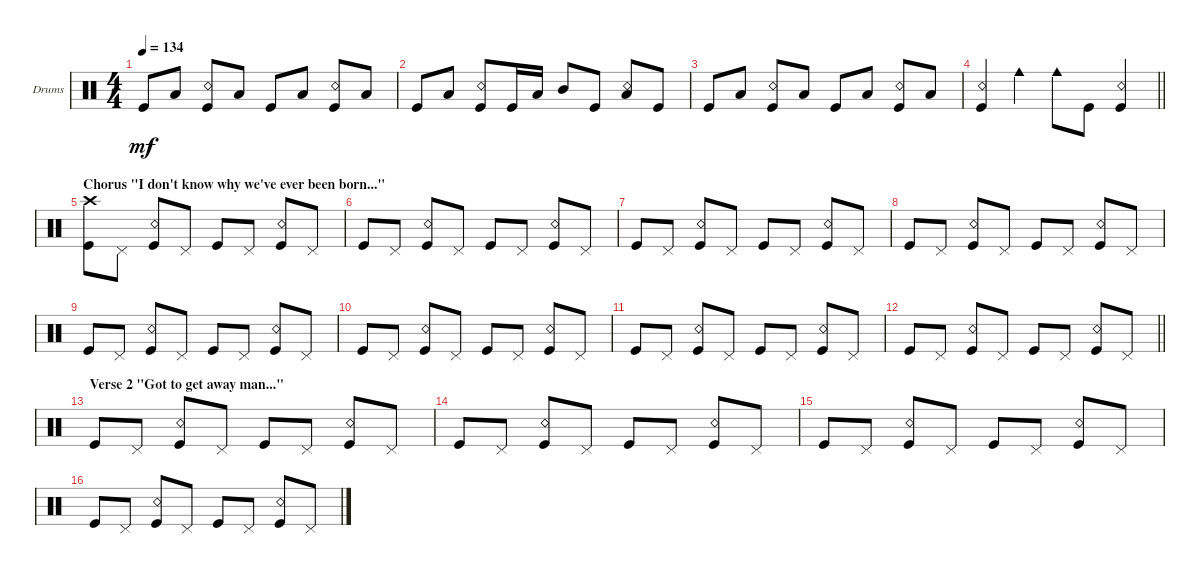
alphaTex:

\bracketExtendMode groupsimilarinstruments
\firstSystemTrackNameOrientation horizontal
\otherSystemsTrackNameOrientation horizontal
\track ("Nicky Bomba" "Drums") {instrument percussion}
\staff {score}
\articulation defaults
\ts (4 4)
\tempo 134
\clef neutral
\scale
0.333333
\ks c "Kick (hit)".8{dy mf} "Low Tom (hit)".8
("Kick (hit)" "Snare (rim shot)").8 "Low Tom (hit)".8 "Kick (hit)".8 "Low Tom (hit)".8 ("Kick (hit)" "Snare (rim shot)").8 "Low Tom (hit)".8 |
\scale
0.333333 "Kick (hit)".8 "Low Tom (hit)".8 ("Kick (hit)" "Snare (rim shot)").8 "Kick (hit)".16 "Low Tom (hit)".16 "Mid Tom (hit)".8 "Kick (hit)".8 ("Low Tom (hit)" "Snare (rim shot)").8 "Kick (hit)".8 |
\scale
0.333333 "Kick (hit)".8 "Low Tom (hit)".8 ("Kick (hit)" "Snare (rim shot)").8 "Low Tom (hit)".8 "Kick (hit)".8 "Low Tom (hit)".8 ("Kick (hit)" "Snare (rim shot)").8 "Low Tom (hit)".8 |
\scale
0.333333
\barLineRight lightlight
("Snare (rim shot)" "Kick (hit)").4 "Cowbell medium (hit)".4 "Cowbell medium (hit)".8 "Kick (hit)".8 ("Snare (rim shot)" "Kick (hit)").4 |
\section ("" "Chorus \"I don't know why we've ever been born...\"")
\scale
0.333333 ("Kick (hit)" "Crash high (hit)").8 "Pedal Hi-Hat (hit)".8 ("Kick (hit)" "Snare (rim shot)").8 "Pedal Hi-Hat (hit)".8 "Kick (hit)".8 "Pedal Hi-Hat (hit)".8 ("Kick (hit)" "Snare (rim shot)").8 "Pedal Hi-Hat (hit)".8 |
\scale
0.333333 "Kick (hit)".8 "Pedal Hi-Hat (hit)".8 ("Kick (hit)" "Snare (rim shot)").8 "Pedal Hi-Hat (hit)".8 "Kick (hit)".8 "Pedal Hi-Hat (hit)".8 ("Kick (hit)" "Snare (rim shot)").8 "Pedal Hi-Hat (hit)".8 |
\scale
0.333333 "Kick (hit)".8 "Pedal Hi-Hat (hit)".8 ("Kick (hit)" "Snare (rim shot)").8 "Pedal Hi-Hat (hit)".8 "Kick (hit)".8 "Pedal Hi-Hat (hit)".8 ("Kick (hit)" "Snare (rim shot)").8 "Pedal Hi-Hat (hit)".8 |
\scale
0.333333 "Kick (hit)".8 "Pedal Hi-Hat (hit)".8 ("Kick (hit)" "Snare (rim shot)").8 "Pedal Hi-Hat (hit)".8 "Kick (hit)".8 "Pedal Hi-Hat (hit)".8 ("Kick (hit)" "Snare (rim shot)").8 "Pedal Hi-Hat (hit)".8 |
\scale
0.333333 "Kick (hit)".8 "Pedal Hi-Hat (hit)".8 ("Kick (hit)" "Snare (rim shot)").8 "Pedal Hi-Hat (hit)".8 "Kick (hit)".8 "Pedal Hi-Hat (hit)".8 ("Kick (hit)" "Snare (rim shot)").8 "Pedal Hi-Hat (hit)".8 |
\scale
0.333333 "Kick (hit)".8 "Pedal Hi-Hat (hit)".8 ("Kick (hit)" "Snare (rim shot)").8 "Pedal Hi-Hat (hit)".8 "Kick (hit)".8 "Pedal Hi-Hat (hit)".8 ("Kick (hit)" "Snare (rim shot)").8 "Pedal Hi-Hat (hit)".8 |
\scale
0.333333 "Kick (hit)".8 "Pedal Hi-Hat (hit)".8 ("Kick (hit)" "Snare (rim shot)").8 "Pedal Hi-Hat (hit)".8 "Kick (hit)".8 "Pedal Hi-Hat (hit)".8 ("Kick (hit)" "Snare (rim shot)").8 "Pedal Hi-Hat (hit)".8 |
\scale
0.333333
\barLineRight lightlight "Kick (hit)".8 "Pedal Hi-Hat (hit)".8
("Kick (hit)" "Snare (rim shot)").8 "Pedal Hi-Hat (hit)".8 "Kick (hit)".8 "Pedal Hi-Hat (hit)".8 ("Kick (hit)" "Snare (rim shot)").8 "Pedal Hi-Hat (hit)".8 |
\section ("" "Verse 2 \"Got to get away man...\"")
\scale
0.333333 "Kick (hit)".8 "Pedal Hi-Hat (hit)".8 ("Kick (hit)" "Snare (rim shot)").8 "Pedal Hi-Hat (hit)".8 "Kick (hit)".8 "Pedal Hi-Hat (hit)".8 ("Kick (hit)" "Snare (rim shot)").8 "Pedal Hi-Hat (hit)".8 |
\scale
0.333333 "Kick (hit)".8 "Pedal Hi-Hat (hit)".8 ("Kick (hit)" "Snare (rim shot)").8 "Pedal Hi-Hat (hit)".8 "Kick (hit)".8 "Pedal Hi-Hat (hit)".8 ("Kick (hit)" "Snare (rim shot)").8 "Pedal Hi-Hat (hit)".8 |
\scale
0.333333 "Kick (hit)".8 "Pedal Hi-Hat (hit)".8 ("Kick (hit)" "Snare (rim shot)").8 "Pedal Hi-Hat (hit)".8 "Kick (hit)".8 "Pedal Hi-Hat (hit)".8 ("Kick (hit)" "Snare (rim shot)").8 "Pedal Hi-Hat (hit)".8 |
\scale
0.333333 "Kick (hit)".8 "Pedal Hi-Hat (hit)".8 ("Kick (hit)" "Snare (rim shot)").8 "Pedal Hi-Hat (hit)".8 "Kick (hit)".8 "Pedal Hi-Hat (hit)".8 ("Kick (hit)" "Snare (rim shot)").8 "Pedal Hi-Hat (hit)".8
